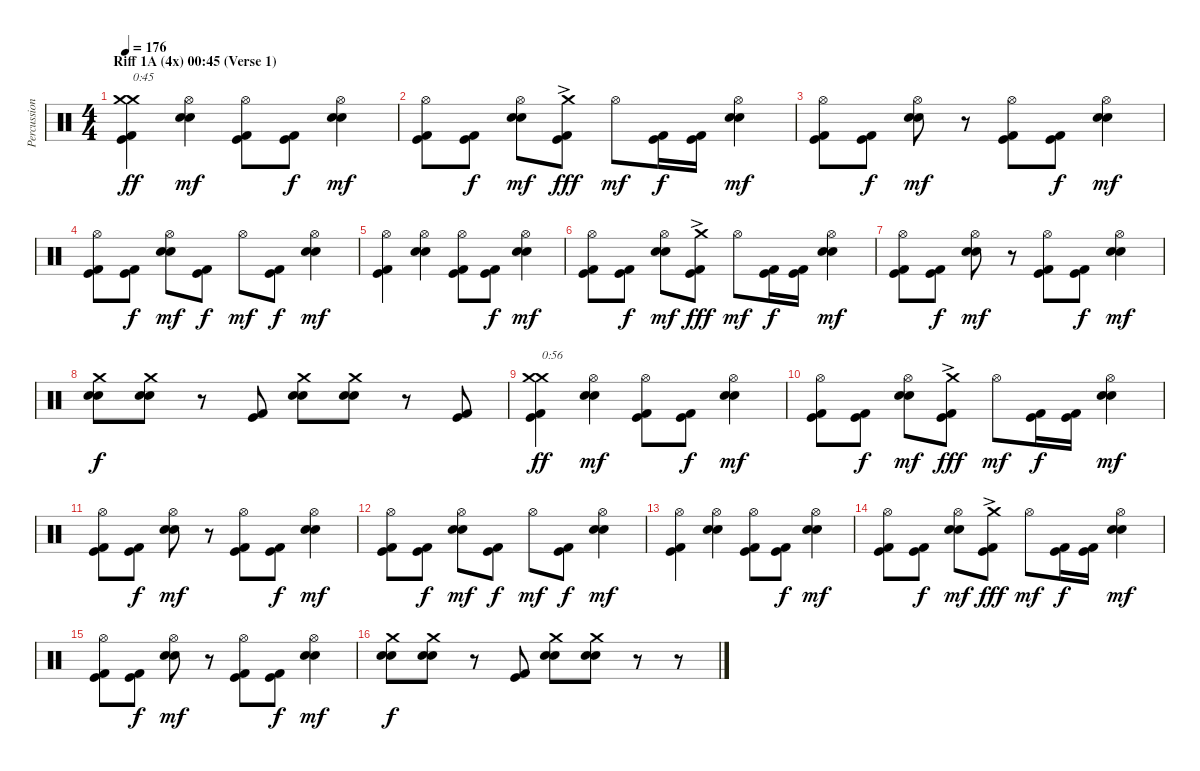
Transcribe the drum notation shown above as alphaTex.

\track ("Percussion" "Percussion") {instrument percussion}
\staff {score}
\articulation defaults
\ts (4 4)
\section ("" "Riff 1A (4x) 00:45 (Verse 1)")
\tempo 176
\clef neutral
\ks c
("Kick (hit) 2" "Kick (hit)" "Crash medium (hit)" "Crash medium (hit)").4{txt "0:45" dy ff} ("Electric Snare (hit)" "Snare (hit) 2" "Hi-Hat (open)").4{dy mf} ("Kick (hit) 2" "Kick (hit)" "Hi-Hat (open)").8 ("Kick (hit) 2" "Kick (hit)").8{dy f} ("Electric Snare (hit)" "Snare (hit) 2" "Hi-Hat (open)").4{dy mf} |
("Kick (hit) 2" "Kick (hit)" "Hi-Hat (open)").8 ("Kick (hit) 2" "Kick (hit)").8{dy f} ("Electric Snare (hit)" "Snare (hit) 2" "Hi-Hat (open)").8{dy mf} ("Kick (hit) 2" "Kick (hit)" "Crash medium (hit)"{ac}).8{dy fff} "Hi-Hat (open)".8{dy mf} ("Kick (hit) 2" "Kick (hit)").16{dy f} ("Kick (hit) 2" "Kick (hit)").16 ("Electric Snare (hit)" "Snare (hit) 2" "Hi-Hat (open)").4{dy mf} |
("Kick (hit) 2" "Kick (hit)" "Hi-Hat (open)").8 ("Kick (hit) 2" "Kick (hit)").8{dy f} ("Electric Snare (hit)" "Snare (hit) 2" "Hi-Hat (open)").8{dy mf} r.8 ("Kick (hit) 2" "Kick (hit)" "Hi-Hat (open)").8 ("Kick (hit) 2" "Kick (hit)").8{dy f} ("Electric Snare (hit)" "Snare (hit) 2" "Hi-Hat (open)").4{dy mf} |
("Kick (hit) 2" "Kick (hit)" "Hi-Hat (open)").8 ("Kick (hit) 2" "Kick (hit)").8{dy f} ("Electric Snare (hit)" "Snare (hit) 2" "Hi-Hat (open)").8{dy mf} ("Kick (hit) 2" "Kick (hit)").8{dy f} "Hi-Hat (open)".8{dy mf} ("Kick (hit) 2" "Kick (hit)").8{dy f} ("Electric Snare (hit)" "Snare (hit) 2" "Hi-Hat (open)").4{dy mf} |
("Kick (hit) 2" "Kick (hit)" "Hi-Hat (open)").4 ("Electric Snare (hit)" "Snare (hit) 2" "Hi-Hat (open)").4 ("Kick (hit) 2" "Kick (hit)" "Hi-Hat (open)").8 ("Kick (hit) 2" "Kick (hit)").8{dy f} ("Electric Snare (hit)" "Snare (hit) 2" "Hi-Hat (open)").4{dy mf} |
("Kick (hit) 2" "Kick (hit)" "Hi-Hat (open)").8 ("Kick (hit) 2" "Kick (hit)").8{dy f} ("Electric Snare (hit)" "Snare (hit) 2" "Hi-Hat (open)").8{dy mf} ("Kick (hit) 2" "Kick (hit)" "Crash medium (hit)"{ac}).8{dy fff} "Hi-Hat (open)".8{dy mf} ("Kick (hit) 2" "Kick (hit)").16{dy f} ("Kick (hit) 2" "Kick (hit)").16 ("Electric Snare (hit)" "Snare (hit) 2" "Hi-Hat (open)").4{dy mf} |
("Kick (hit) 2" "Kick (hit)" "Hi-Hat (open)").8 ("Kick (hit) 2" "Kick (hit)").8{dy f} ("Electric Snare (hit)" "Snare (hit) 2" "Hi-Hat (open)").8{dy mf} r.8 ("Kick (hit) 2" "Kick (hit)" "Hi-Hat (open)").8 ("Kick (hit) 2" "Kick (hit)").8{dy f} ("Electric Snare (hit)" "Snare (hit) 2" "Hi-Hat (open)").4{dy mf} |
("Electric Snare (hit)" "Snare (hit) 2" "Crash medium (hit)").8{dy f} ("Electric Snare (hit)" "Snare (hit) 2" "Crash medium (hit)").8 r.8 ("Kick (hit) 2" "Kick (hit)").8 ("Electric Snare (hit)" "Snare (hit) 2" "Crash medium (hit)").8 ("Electric Snare (hit)" "Snare (hit) 2" "Crash medium (hit)").8 r.8 ("Kick (hit) 2" "Kick (hit)").8 |
("Kick (hit) 2" "Kick (hit)" "Crash medium (hit)" "Crash medium (hit)").4{txt "0:56" dy ff} ("Electric Snare (hit)" "Snare (hit) 2" "Hi-Hat (open)").4{dy mf} ("Kick (hit) 2" "Kick (hit)" "Hi-Hat (open)").8 ("Kick (hit) 2" "Kick (hit)").8{dy f} ("Electric Snare (hit)" "Snare (hit) 2" "Hi-Hat (open)").4{dy mf} |
("Kick (hit) 2" "Kick (hit)" "Hi-Hat (open)").8 ("Kick (hit) 2" "Kick (hit)").8{dy f} ("Electric Snare (hit)" "Snare (hit) 2" "Hi-Hat (open)").8{dy mf} ("Kick (hit) 2" "Kick (hit)" "Crash medium (hit)"{ac}).8{dy fff} "Hi-Hat (open)".8{dy mf} ("Kick (hit) 2" "Kick (hit)").16{dy f} ("Kick (hit) 2" "Kick (hit)").16 ("Electric Snare (hit)" "Snare (hit) 2" "Hi-Hat (open)").4{dy mf} |
("Kick (hit) 2" "Kick (hit)" "Hi-Hat (open)").8 ("Kick (hit) 2" "Kick (hit)").8{dy f} ("Electric Snare (hit)" "Snare (hit) 2" "Hi-Hat (open)").8{dy mf} r.8 ("Kick (hit) 2" "Kick (hit)" "Hi-Hat (open)").8 ("Kick (hit) 2" "Kick (hit)").8{dy f} ("Electric Snare (hit)" "Snare (hit) 2" "Hi-Hat (open)").4{dy mf} |
("Kick (hit) 2" "Kick (hit)" "Hi-Hat (open)").8 ("Kick (hit) 2" "Kick (hit)").8{dy f} ("Electric Snare (hit)" "Snare (hit) 2" "Hi-Hat (open)").8{dy mf} ("Kick (hit) 2" "Kick (hit)").8{dy f} "Hi-Hat (open)".8{dy mf} ("Kick (hit) 2" "Kick (hit)").8{dy f} ("Electric Snare (hit)" "Snare (hit) 2" "Hi-Hat (open)").4{dy mf} |
("Kick (hit) 2" "Kick (hit)" "Hi-Hat (open)").4 ("Electric Snare (hit)" "Snare (hit) 2" "Hi-Hat (open)").4 ("Kick (hit) 2" "Kick (hit)" "Hi-Hat (open)").8 ("Kick (hit) 2" "Kick (hit)").8{dy f} ("Electric Snare (hit)" "Snare (hit) 2" "Hi-Hat (open)").4{dy mf} |
("Kick (hit) 2" "Kick (hit)" "Hi-Hat (open)").8 ("Kick (hit) 2" "Kick (hit)").8{dy f} ("Electric Snare (hit)" "Snare (hit) 2" "Hi-Hat (open)").8{dy mf} ("Kick (hit) 2" "Kick (hit)" "Crash medium (hit)"{ac}).8{dy fff} "Hi-Hat (open)".8{dy mf} ("Kick (hit) 2" "Kick (hit)").16{dy f} ("Kick (hit) 2" "Kick (hit)").16 ("Electric Snare (hit)" "Snare (hit) 2" "Hi-Hat (open)").4{dy mf} |
("Kick (hit) 2" "Kick (hit)" "Hi-Hat (open)").8 ("Kick (hit) 2" "Kick (hit)").8{dy f} ("Electric Snare (hit)" "Snare (hit) 2" "Hi-Hat (open)").8{dy mf} r.8 ("Kick (hit) 2" "Kick (hit)" "Hi-Hat (open)").8 ("Kick (hit) 2" "Kick (hit)").8{dy f} ("Electric Snare (hit)" "Snare (hit) 2" "Hi-Hat (open)").4{dy mf} |
("Electric Snare (hit)" "Snare (hit) 2" "Crash medium (hit)").8{dy f} ("Electric Snare (hit)" "Snare (hit) 2" "Crash medium (hit)").8 r.8 ("Kick (hit) 2" "Kick (hit)").8 ("Electric Snare (hit)" "Snare (hit) 2" "Crash medium (hit)").8 ("Electric Snare (hit)" "Snare (hit) 2" "Crash medium (hit)").8 r.8 r.8
